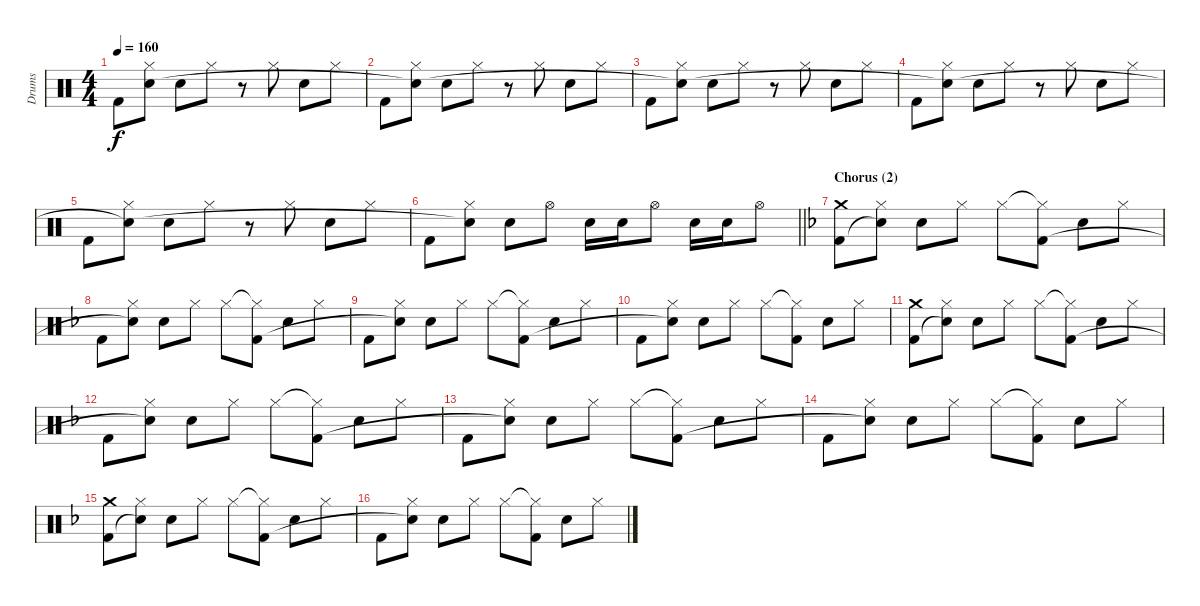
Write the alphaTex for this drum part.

\track ("Drums" "Drums") {instrument percussion}
\staff {score}
\articulation defaults
\ts (4 4)
\tempo 160
\clef neutral
\ks c "Kick (hit) 2".8{dy f}
("Hi-Hat (closed)" "Snare (hit)"{t}).8 "Electric Snare (hit)".8 "Hi-Hat (closed)".8 r.8 "Hi-Hat (closed)".8 "Electric Snare (hit)".8 "Hi-Hat (closed)".8 |
"Kick (hit) 2".8 ("Hi-Hat (closed)" "Snare (hit)"{t}).8 "Electric Snare (hit)".8 "Hi-Hat (closed)".8 r.8 "Hi-Hat (closed)".8 "Electric Snare (hit)".8 "Hi-Hat (closed)".8 |
"Kick (hit) 2".8 ("Hi-Hat (closed)" "Snare (hit)"{t}).8 "Electric Snare (hit)".8 "Hi-Hat (closed)".8 r.8 "Hi-Hat (closed)".8 "Electric Snare (hit)".8 "Hi-Hat (closed)".8 |
"Kick (hit) 2".8 ("Hi-Hat (closed)" "Snare (hit)"{t}).8 "Electric Snare (hit)".8 "Hi-Hat (closed)".8 r.8 "Hi-Hat (closed)".8 "Electric Snare (hit)".8 "Hi-Hat (closed)".8 |
"Kick (hit) 2".8 ("Hi-Hat (closed)" "Snare (hit)"{t}).8 "Electric Snare (hit)".8 "Hi-Hat (closed)".8 r.8 "Hi-Hat (closed)".8 "Electric Snare (hit)".8 "Hi-Hat (closed)".8 |
\barLineRight lightlight "Kick (hit) 2".8
("Hi-Hat (closed)" "Snare (hit)"{t}).8 "Electric Snare (hit)".8 "Hi-Hat (open)".8 "Electric Snare (hit)".16 "Electric Snare (hit)".16 "Hi-Hat (open)".8 "Electric Snare (hit)".16 "Electric Snare (hit)".16 "Hi-Hat (open)".8 |
\section ("" "Chorus (2)")
\ks f
("Crash medium (hit)" "Kick (hit) 2").8 ("Hi-Hat (closed)" "Snare (hit)"{t}).8 "Electric Snare (hit)".8 "Hi-Hat (closed)".8 "Hi-Hat (closed)".8 ("Hi-Hat (closed)"{t} "Kick (hit) 2").8 "Electric Snare (hit)".8 "Hi-Hat (closed)".8 |
"Kick (hit) 2".8 ("Hi-Hat (closed)" "Snare (hit)"{t}).8 "Electric Snare (hit)".8 "Hi-Hat (closed)".8 "Hi-Hat (closed)".8 ("Hi-Hat (closed)"{t} "Kick (hit) 2").8 "Electric Snare (hit)".8 "Hi-Hat (closed)".8 |
"Kick (hit) 2".8 ("Hi-Hat (closed)" "Snare (hit)"{t}).8 "Electric Snare (hit)".8 "Hi-Hat (closed)".8 "Hi-Hat (closed)".8 ("Hi-Hat (closed)"{t} "Kick (hit) 2").8 "Electric Snare (hit)".8 "Hi-Hat (closed)".8 |
"Kick (hit) 2".8 ("Hi-Hat (closed)" "Snare (hit)"{t}).8 "Electric Snare (hit)".8 "Hi-Hat (closed)".8 "Hi-Hat (closed)".8 ("Hi-Hat (closed)"{t} "Kick (hit) 2").8 "Electric Snare (hit)".8 "Hi-Hat (closed)".8 |
("Crash medium (hit)" "Kick (hit) 2").8 ("Hi-Hat (closed)" "Snare (hit)"{t}).8 "Electric Snare (hit)".8 "Hi-Hat (closed)".8 "Hi-Hat (closed)".8 ("Hi-Hat (closed)"{t} "Kick (hit) 2").8 "Electric Snare (hit)".8 "Hi-Hat (closed)".8 |
"Kick (hit) 2".8 ("Hi-Hat (closed)" "Snare (hit)"{t}).8 "Electric Snare (hit)".8 "Hi-Hat (closed)".8 "Hi-Hat (closed)".8 ("Hi-Hat (closed)"{t} "Kick (hit) 2").8 "Electric Snare (hit)".8 "Hi-Hat (closed)".8 |
"Kick (hit) 2".8 ("Hi-Hat (closed)" "Snare (hit)"{t}).8 "Electric Snare (hit)".8 "Hi-Hat (closed)".8 "Hi-Hat (closed)".8 ("Hi-Hat (closed)"{t} "Kick (hit) 2").8 "Electric Snare (hit)".8 "Hi-Hat (closed)".8 |
"Kick (hit) 2".8 ("Hi-Hat (closed)" "Snare (hit)"{t}).8 "Electric Snare (hit)".8 "Hi-Hat (closed)".8 "Hi-Hat (closed)".8 ("Hi-Hat (closed)"{t} "Kick (hit) 2").8 "Electric Snare (hit)".8 "Hi-Hat (closed)".8 |
("Crash medium (hit)" "Kick (hit) 2").8 ("Hi-Hat (closed)" "Snare (hit)"{t}).8 "Electric Snare (hit)".8 "Hi-Hat (closed)".8 "Hi-Hat (closed)".8 ("Hi-Hat (closed)"{t} "Kick (hit) 2").8 "Electric Snare (hit)".8 "Hi-Hat (closed)".8 |
"Kick (hit) 2".8 ("Hi-Hat (closed)" "Snare (hit)"{t}).8 "Electric Snare (hit)".8 "Hi-Hat (closed)".8 "Hi-Hat (closed)".8 ("Hi-Hat (closed)"{t} "Kick (hit) 2").8 "Electric Snare (hit)".8 "Hi-Hat (closed)".8
